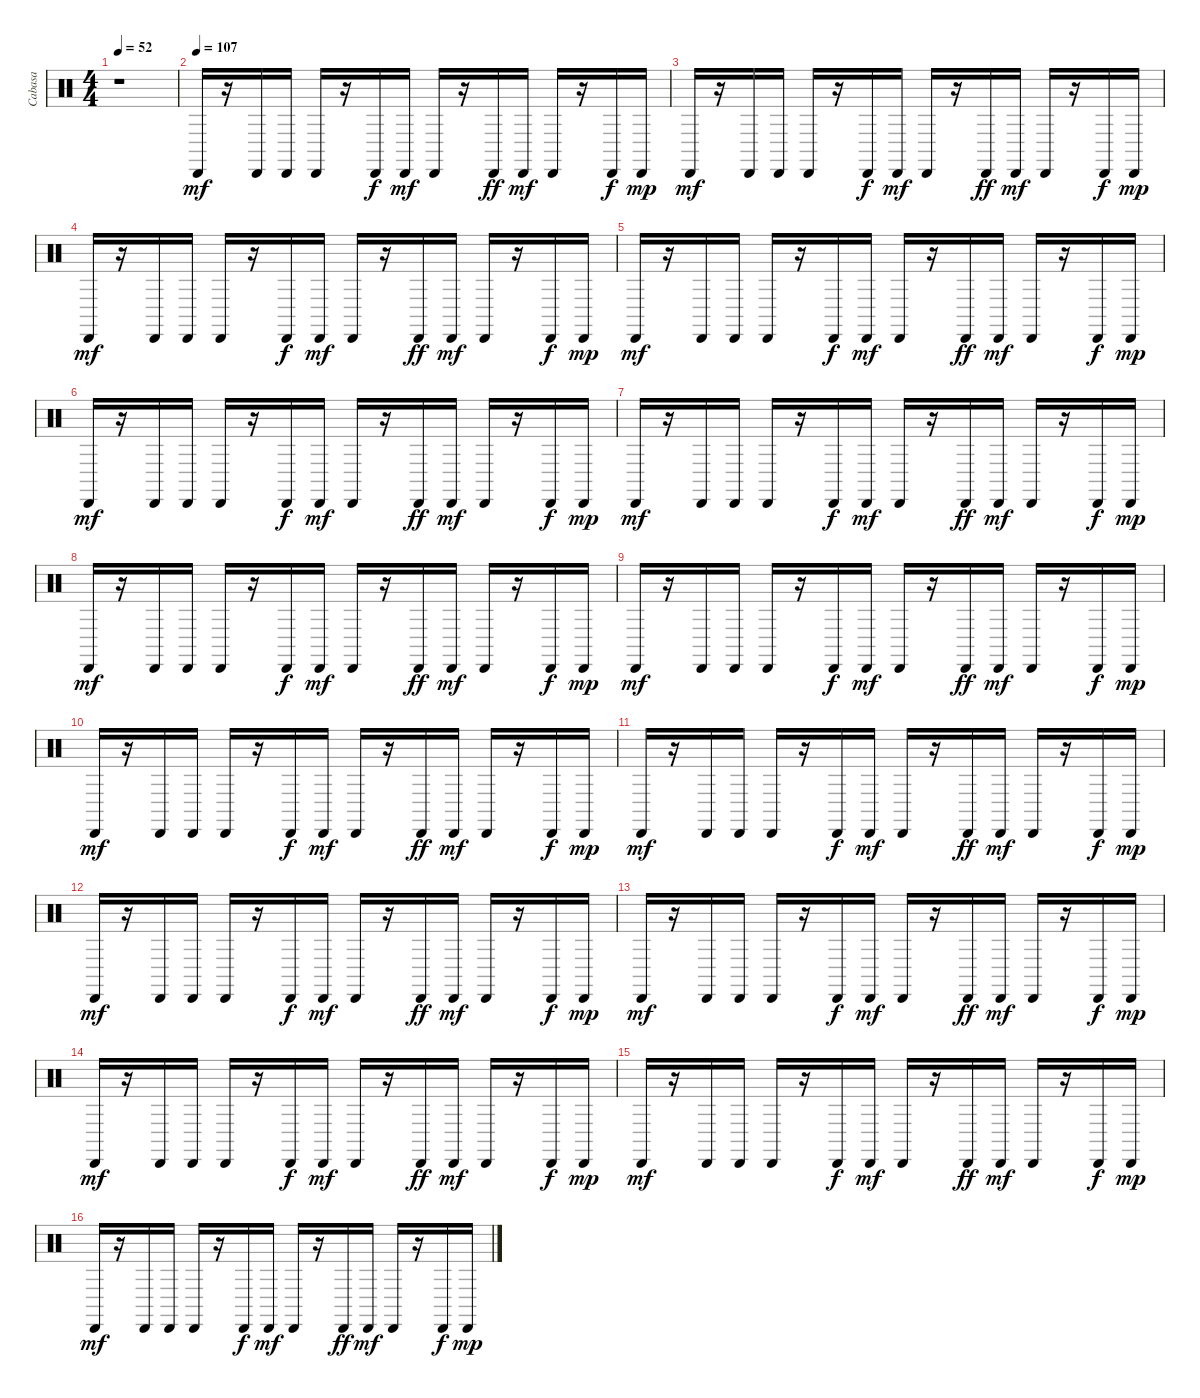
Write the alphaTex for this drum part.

\track ("Cabasa" "Cabasa") {instrument percussion}
\staff {score}
\articulation defaults
\ts (4 4)
\tempo 52
\clef neutral
\ks c
r.1{dy f} |
\tempo (107)
"Cabasa (hit)".16{dy mf} r.16 "Cabasa (hit)".16 "Cabasa (hit)".16 "Cabasa (hit)".16 r.16 "Cabasa (hit)".16{dy f} "Cabasa (hit)".16{dy mf} "Cabasa (hit)".16 r.16 "Cabasa (hit)".16{dy ff} "Cabasa (hit)".16{dy mf} "Cabasa (hit)".16 r.16 "Cabasa (hit)".16{dy f} "Cabasa (hit)".16{dy mp} |
"Cabasa (hit)".16{dy mf} r.16 "Cabasa (hit)".16 "Cabasa (hit)".16 "Cabasa (hit)".16 r.16 "Cabasa (hit)".16{dy f} "Cabasa (hit)".16{dy mf} "Cabasa (hit)".16 r.16 "Cabasa (hit)".16{dy ff} "Cabasa (hit)".16{dy mf} "Cabasa (hit)".16 r.16 "Cabasa (hit)".16{dy f} "Cabasa (hit)".16{dy mp} |
"Cabasa (hit)".16{dy mf} r.16 "Cabasa (hit)".16 "Cabasa (hit)".16 "Cabasa (hit)".16 r.16 "Cabasa (hit)".16{dy f} "Cabasa (hit)".16{dy mf} "Cabasa (hit)".16 r.16 "Cabasa (hit)".16{dy ff} "Cabasa (hit)".16{dy mf} "Cabasa (hit)".16 r.16 "Cabasa (hit)".16{dy f} "Cabasa (hit)".16{dy mp} |
"Cabasa (hit)".16{dy mf} r.16 "Cabasa (hit)".16 "Cabasa (hit)".16 "Cabasa (hit)".16 r.16 "Cabasa (hit)".16{dy f} "Cabasa (hit)".16{dy mf} "Cabasa (hit)".16 r.16 "Cabasa (hit)".16{dy ff} "Cabasa (hit)".16{dy mf} "Cabasa (hit)".16 r.16 "Cabasa (hit)".16{dy f} "Cabasa (hit)".16{dy mp} |
"Cabasa (hit)".16{dy mf} r.16 "Cabasa (hit)".16 "Cabasa (hit)".16 "Cabasa (hit)".16 r.16 "Cabasa (hit)".16{dy f} "Cabasa (hit)".16{dy mf} "Cabasa (hit)".16 r.16 "Cabasa (hit)".16{dy ff} "Cabasa (hit)".16{dy mf} "Cabasa (hit)".16 r.16 "Cabasa (hit)".16{dy f} "Cabasa (hit)".16{dy mp} |
"Cabasa (hit)".16{dy mf} r.16 "Cabasa (hit)".16 "Cabasa (hit)".16 "Cabasa (hit)".16 r.16 "Cabasa (hit)".16{dy f} "Cabasa (hit)".16{dy mf} "Cabasa (hit)".16 r.16 "Cabasa (hit)".16{dy ff} "Cabasa (hit)".16{dy mf} "Cabasa (hit)".16 r.16 "Cabasa (hit)".16{dy f} "Cabasa (hit)".16{dy mp} |
"Cabasa (hit)".16{dy mf} r.16 "Cabasa (hit)".16 "Cabasa (hit)".16 "Cabasa (hit)".16 r.16 "Cabasa (hit)".16{dy f} "Cabasa (hit)".16{dy mf} "Cabasa (hit)".16 r.16 "Cabasa (hit)".16{dy ff} "Cabasa (hit)".16{dy mf} "Cabasa (hit)".16 r.16 "Cabasa (hit)".16{dy f} "Cabasa (hit)".16{dy mp} |
"Cabasa (hit)".16{dy mf} r.16 "Cabasa (hit)".16 "Cabasa (hit)".16 "Cabasa (hit)".16 r.16 "Cabasa (hit)".16{dy f} "Cabasa (hit)".16{dy mf} "Cabasa (hit)".16 r.16 "Cabasa (hit)".16{dy ff} "Cabasa (hit)".16{dy mf} "Cabasa (hit)".16 r.16 "Cabasa (hit)".16{dy f} "Cabasa (hit)".16{dy mp} |
"Cabasa (hit)".16{dy mf} r.16 "Cabasa (hit)".16 "Cabasa (hit)".16 "Cabasa (hit)".16 r.16 "Cabasa (hit)".16{dy f} "Cabasa (hit)".16{dy mf} "Cabasa (hit)".16 r.16 "Cabasa (hit)".16{dy ff} "Cabasa (hit)".16{dy mf} "Cabasa (hit)".16 r.16 "Cabasa (hit)".16{dy f} "Cabasa (hit)".16{dy mp} |
"Cabasa (hit)".16{dy mf} r.16 "Cabasa (hit)".16 "Cabasa (hit)".16 "Cabasa (hit)".16 r.16 "Cabasa (hit)".16{dy f} "Cabasa (hit)".16{dy mf} "Cabasa (hit)".16 r.16 "Cabasa (hit)".16{dy ff} "Cabasa (hit)".16{dy mf} "Cabasa (hit)".16 r.16 "Cabasa (hit)".16{dy f} "Cabasa (hit)".16{dy mp} |
"Cabasa (hit)".16{dy mf} r.16 "Cabasa (hit)".16 "Cabasa (hit)".16 "Cabasa (hit)".16 r.16 "Cabasa (hit)".16{dy f} "Cabasa (hit)".16{dy mf} "Cabasa (hit)".16 r.16 "Cabasa (hit)".16{dy ff} "Cabasa (hit)".16{dy mf} "Cabasa (hit)".16 r.16 "Cabasa (hit)".16{dy f} "Cabasa (hit)".16{dy mp} |
"Cabasa (hit)".16{dy mf} r.16 "Cabasa (hit)".16 "Cabasa (hit)".16 "Cabasa (hit)".16 r.16 "Cabasa (hit)".16{dy f} "Cabasa (hit)".16{dy mf} "Cabasa (hit)".16 r.16 "Cabasa (hit)".16{dy ff} "Cabasa (hit)".16{dy mf} "Cabasa (hit)".16 r.16 "Cabasa (hit)".16{dy f} "Cabasa (hit)".16{dy mp} |
"Cabasa (hit)".16{dy mf} r.16 "Cabasa (hit)".16 "Cabasa (hit)".16 "Cabasa (hit)".16 r.16 "Cabasa (hit)".16{dy f} "Cabasa (hit)".16{dy mf} "Cabasa (hit)".16 r.16 "Cabasa (hit)".16{dy ff} "Cabasa (hit)".16{dy mf} "Cabasa (hit)".16 r.16 "Cabasa (hit)".16{dy f} "Cabasa (hit)".16{dy mp} |
"Cabasa (hit)".16{dy mf} r.16 "Cabasa (hit)".16 "Cabasa (hit)".16 "Cabasa (hit)".16 r.16 "Cabasa (hit)".16{dy f} "Cabasa (hit)".16{dy mf} "Cabasa (hit)".16 r.16 "Cabasa (hit)".16{dy ff} "Cabasa (hit)".16{dy mf} "Cabasa (hit)".16 r.16 "Cabasa (hit)".16{dy f} "Cabasa (hit)".16{dy mp} |
"Cabasa (hit)".16{dy mf} r.16 "Cabasa (hit)".16 "Cabasa (hit)".16 "Cabasa (hit)".16 r.16 "Cabasa (hit)".16{dy f} "Cabasa (hit)".16{dy mf} "Cabasa (hit)".16 r.16 "Cabasa (hit)".16{dy ff} "Cabasa (hit)".16{dy mf} "Cabasa (hit)".16 r.16 "Cabasa (hit)".16{dy f} "Cabasa (hit)".16{dy mp}
